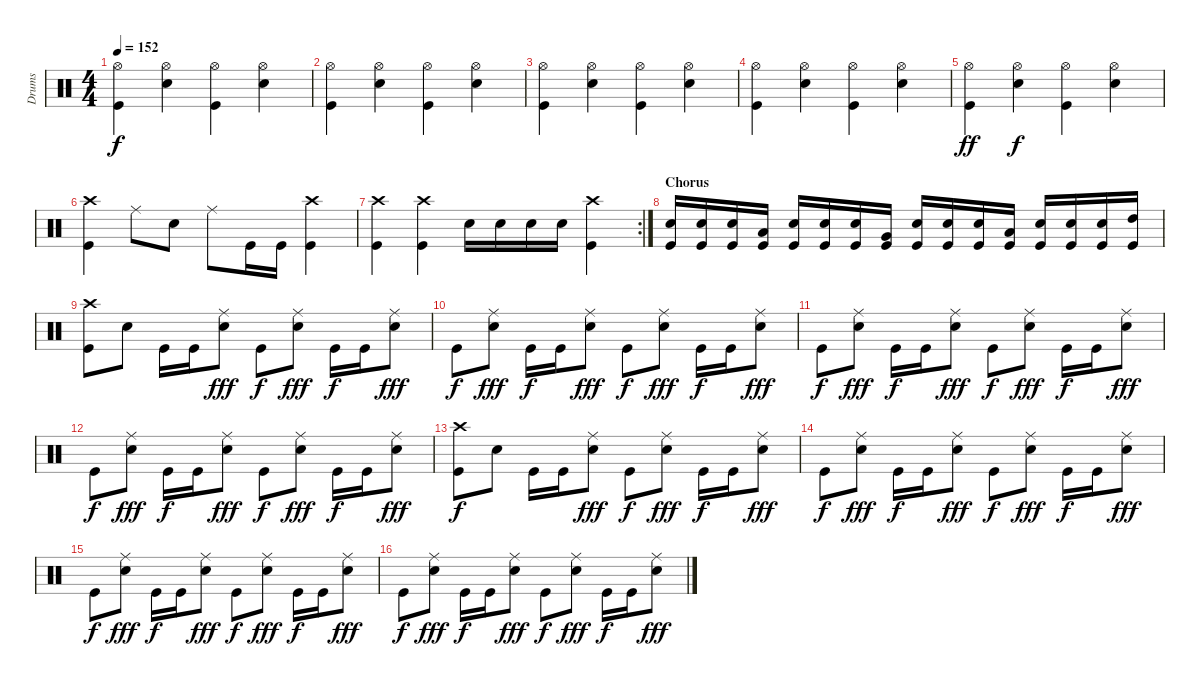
\track ("Drums" "Drums") {instrument percussion}
\staff {score}
\articulation defaults
\ts (4 4)
\tempo 152
\clef neutral
\ks c
("Hi-Hat (open)" "Kick (hit)").4{dy f} ("Hi-Hat (open)" "Snare (hit) 2").4 ("Hi-Hat (open)" "Kick (hit)").4 ("Hi-Hat (open)" "Snare (hit) 2").4 |
("Hi-Hat (open)" "Kick (hit)").4 ("Hi-Hat (open)" "Snare (hit) 2").4 ("Hi-Hat (open)" "Kick (hit)").4 ("Hi-Hat (open)" "Snare (hit) 2").4 |
("Hi-Hat (open)" "Kick (hit)").4 ("Hi-Hat (open)" "Snare (hit) 2").4 ("Hi-Hat (open)" "Kick (hit)").4 ("Hi-Hat (open)" "Snare (hit) 2").4 |
("Hi-Hat (open)" "Kick (hit)").4 ("Hi-Hat (open)" "Snare (hit) 2").4 ("Hi-Hat (open)" "Kick (hit)").4 ("Hi-Hat (open)" "Snare (hit) 2").4 |
("Hi-Hat (open)" "Kick (hit)").4{dy ff} ("Hi-Hat (open)" "Snare (hit) 2").4{dy f} ("Hi-Hat (open)" "Kick (hit)").4 ("Hi-Hat (open)" "Snare (hit) 2").4 |
("Crash high (hit)" "Kick (hit)").4 "Ride (middle)".8 "Snare (hit) 2".8 "Ride (middle)".8 "Kick (hit)".16 "Kick (hit)".16 ("Crash high (hit)" "Kick (hit)").4 |
\rc 2
("Crash high (hit)" "Kick (hit)").4 ("Crash high (hit)" "Kick (hit)").4 "Snare (hit) 2".16 "Snare (hit) 2".16 "Snare (hit) 2".16 "Snare (hit) 2".16 ("Crash high (hit)" "Kick (hit)").4 |
\section ("" "Chorus")
("Snare (hit) 2" "Kick (hit)").16 ("Snare (hit) 2" "Kick (hit)").16 ("Snare (hit) 2" "Kick (hit)").16 ("Low Floor Tom (hit)" "Kick (hit)").16 ("Snare (hit) 2" "Kick (hit)").16 ("Snare (hit) 2" "Kick (hit)").16 ("Snare (hit) 2" "Kick (hit)").16 ("Very Low Tom (hit)" "Kick (hit)").16 ("Snare (hit) 2" "Kick (hit)").16 ("Snare (hit) 2" "Kick (hit)").16 ("Snare (hit) 2" "Kick (hit)").16 ("Low Tom (hit)" "Kick (hit)").16 ("Snare (hit) 2" "Kick (hit)").16 ("Snare (hit) 2" "Kick (hit)").16 ("Snare (hit) 2" "Kick (hit)").16 ("High Tom (hit)" "Kick (hit)").16 |
("Crash high (hit)" "Kick (hit)").8 "Snare (hit) 2".8 "Kick (hit)".16 "Kick (hit)".16 ("Ride (middle)" "Snare (hit) 2").8{dy fff} "Kick (hit)".8{dy f} ("Ride (middle)" "Snare (hit) 2").8{dy fff} "Kick (hit)".16{dy f} "Kick (hit)".16 ("Ride (middle)" "Snare (hit) 2").8{dy fff} |
"Kick (hit)".8{dy f} ("Ride (middle)" "Snare (hit) 2").8{dy fff} "Kick (hit)".16{dy f} "Kick (hit)".16 ("Ride (middle)" "Snare (hit) 2").8{dy fff} "Kick (hit)".8{dy f} ("Ride (middle)" "Snare (hit) 2").8{dy fff} "Kick (hit)".16{dy f} "Kick (hit)".16 ("Ride (middle)" "Snare (hit) 2").8{dy fff} |
"Kick (hit)".8{dy f} ("Ride (middle)" "Snare (hit) 2").8{dy fff} "Kick (hit)".16{dy f} "Kick (hit)".16 ("Ride (middle)" "Snare (hit) 2").8{dy fff} "Kick (hit)".8{dy f} ("Ride (middle)" "Snare (hit) 2").8{dy fff} "Kick (hit)".16{dy f} "Kick (hit)".16 ("Ride (middle)" "Snare (hit) 2").8{dy fff} |
"Kick (hit)".8{dy f} ("Ride (middle)" "Snare (hit) 2").8{dy fff} "Kick (hit)".16{dy f} "Kick (hit)".16 ("Ride (middle)" "Snare (hit) 2").8{dy fff} "Kick (hit)".8{dy f} ("Ride (middle)" "Snare (hit) 2").8{dy fff} "Kick (hit)".16{dy f} "Kick (hit)".16 ("Ride (middle)" "Snare (hit) 2").8{dy fff} |
("Crash high (hit)" "Kick (hit)").8{dy f} "Snare (hit) 2".8 "Kick (hit)".16 "Kick (hit)".16 ("Ride (middle)" "Snare (hit) 2").8{dy fff} "Kick (hit)".8{dy f} ("Ride (middle)" "Snare (hit) 2").8{dy fff} "Kick (hit)".16{dy f} "Kick (hit)".16 ("Ride (middle)" "Snare (hit) 2").8{dy fff} |
"Kick (hit)".8{dy f} ("Ride (middle)" "Snare (hit) 2").8{dy fff} "Kick (hit)".16{dy f} "Kick (hit)".16 ("Ride (middle)" "Snare (hit) 2").8{dy fff} "Kick (hit)".8{dy f} ("Ride (middle)" "Snare (hit) 2").8{dy fff} "Kick (hit)".16{dy f} "Kick (hit)".16 ("Ride (middle)" "Snare (hit) 2").8{dy fff} |
"Kick (hit)".8{dy f} ("Ride (middle)" "Snare (hit) 2").8{dy fff} "Kick (hit)".16{dy f} "Kick (hit)".16 ("Ride (middle)" "Snare (hit) 2").8{dy fff} "Kick (hit)".8{dy f} ("Ride (middle)" "Snare (hit) 2").8{dy fff} "Kick (hit)".16{dy f} "Kick (hit)".16 ("Ride (middle)" "Snare (hit) 2").8{dy fff} |
"Kick (hit)".8{dy f} ("Ride (middle)" "Snare (hit) 2").8{dy fff} "Kick (hit)".16{dy f} "Kick (hit)".16 ("Ride (middle)" "Snare (hit) 2").8{dy fff} "Kick (hit)".8{dy f} ("Ride (middle)" "Snare (hit) 2").8{dy fff} "Kick (hit)".16{dy f} "Kick (hit)".16 ("Ride (middle)" "Snare (hit) 2").8{dy fff}
